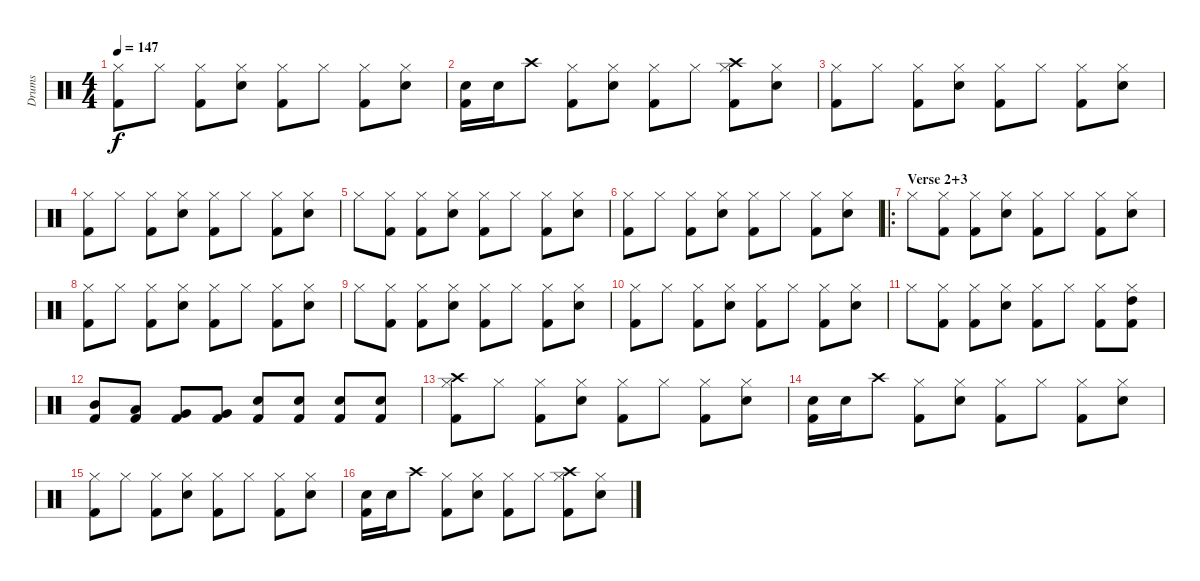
\track ("Drums" "Drums") {instrument percussion}
\staff {score}
\articulation defaults
\ts (4 4)
\tempo 147
\clef neutral
\ks c
("Kick (hit) 2" "Hi-Hat (closed)").8{dy f} "Hi-Hat (closed)".8 ("Kick (hit) 2" "Hi-Hat (closed)").8 ("Electric Snare (hit)" "Hi-Hat (closed)").8 ("Kick (hit) 2" "Hi-Hat (closed)").8 "Hi-Hat (closed)".8 ("Kick (hit) 2" "Hi-Hat (closed)").8 ("Electric Snare (hit)" "Hi-Hat (closed)").8 |
("Kick (hit) 2" "Electric Snare (hit)").16 "Electric Snare (hit)".16 "Crash high (hit)".8 ("Kick (hit) 2" "Hi-Hat (closed)").8 ("Electric Snare (hit)" "Hi-Hat (closed)").8 ("Kick (hit) 2" "Hi-Hat (closed)").8 "Hi-Hat (closed)".8 ("Kick (hit) 2" "Hi-Hat (closed)" "Crash high (hit)").8 ("Electric Snare (hit)" "Hi-Hat (closed)").8 |
("Kick (hit) 2" "Hi-Hat (closed)").8 "Hi-Hat (closed)".8 ("Kick (hit) 2" "Hi-Hat (closed)").8 ("Electric Snare (hit)" "Hi-Hat (closed)").8 ("Kick (hit) 2" "Hi-Hat (closed)").8 "Hi-Hat (closed)".8 ("Kick (hit) 2" "Hi-Hat (closed)").8 ("Electric Snare (hit)" "Hi-Hat (closed)").8 |
("Kick (hit) 2" "Hi-Hat (closed)").8 "Hi-Hat (closed)".8 ("Kick (hit) 2" "Hi-Hat (closed)").8 ("Electric Snare (hit)" "Hi-Hat (closed)").8 ("Kick (hit) 2" "Hi-Hat (closed)").8 "Hi-Hat (closed)".8 ("Kick (hit) 2" "Hi-Hat (closed)").8 ("Electric Snare (hit)" "Hi-Hat (closed)").8 |
"Hi-Hat (closed)".8 ("Kick (hit) 2" "Hi-Hat (closed)").8 ("Kick (hit) 2" "Hi-Hat (closed)").8 ("Electric Snare (hit)" "Hi-Hat (closed)").8 ("Kick (hit) 2" "Hi-Hat (closed)").8 "Hi-Hat (closed)".8 ("Kick (hit) 2" "Hi-Hat (closed)").8 ("Electric Snare (hit)" "Hi-Hat (closed)").8 |
("Kick (hit) 2" "Hi-Hat (closed)").8 "Hi-Hat (closed)".8 ("Kick (hit) 2" "Hi-Hat (closed)").8 ("Electric Snare (hit)" "Hi-Hat (closed)").8 ("Kick (hit) 2" "Hi-Hat (closed)").8 "Hi-Hat (closed)".8 ("Kick (hit) 2" "Hi-Hat (closed)").8 ("Electric Snare (hit)" "Hi-Hat (closed)").8 |
\ro
\section ("" "Verse 2+3")
"Hi-Hat (closed)".8 ("Kick (hit) 2" "Hi-Hat (closed)").8 ("Kick (hit) 2" "Hi-Hat (closed)").8 ("Electric Snare (hit)" "Hi-Hat (closed)").8 ("Kick (hit) 2" "Hi-Hat (closed)").8 "Hi-Hat (closed)".8 ("Kick (hit) 2" "Hi-Hat (closed)").8 ("Electric Snare (hit)" "Hi-Hat (closed)").8 |
("Kick (hit) 2" "Hi-Hat (closed)").8 "Hi-Hat (closed)".8 ("Kick (hit) 2" "Hi-Hat (closed)").8 ("Electric Snare (hit)" "Hi-Hat (closed)").8 ("Kick (hit) 2" "Hi-Hat (closed)").8 "Hi-Hat (closed)".8 ("Kick (hit) 2" "Hi-Hat (closed)").8 ("Electric Snare (hit)" "Hi-Hat (closed)").8 |
"Hi-Hat (closed)".8 ("Kick (hit) 2" "Hi-Hat (closed)").8 ("Kick (hit) 2" "Hi-Hat (closed)").8 ("Electric Snare (hit)" "Hi-Hat (closed)").8 ("Kick (hit) 2" "Hi-Hat (closed)").8 "Hi-Hat (closed)".8 ("Kick (hit) 2" "Hi-Hat (closed)").8 ("Electric Snare (hit)" "Hi-Hat (closed)").8 |
("Kick (hit) 2" "Hi-Hat (closed)").8 "Hi-Hat (closed)".8 ("Kick (hit) 2" "Hi-Hat (closed)").8 ("Electric Snare (hit)" "Hi-Hat (closed)").8 ("Kick (hit) 2" "Hi-Hat (closed)").8 "Hi-Hat (closed)".8 ("Kick (hit) 2" "Hi-Hat (closed)").8 ("Electric Snare (hit)" "Hi-Hat (closed)").8 |
"Hi-Hat (closed)".8 ("Kick (hit) 2" "Hi-Hat (closed)").8 ("Kick (hit) 2" "Hi-Hat (closed)").8 ("Electric Snare (hit)" "Hi-Hat (closed)").8 ("Kick (hit) 2" "Hi-Hat (closed)").8 "Hi-Hat (closed)".8 ("Kick (hit) 2" "Hi-Hat (closed)").8 ("Kick (hit) 2" "High Tom (hit)" "Hi-Hat (closed)").8 |
("Kick (hit) 2" "Mid Tom (hit)").8 ("Kick (hit) 2" "Low Tom (hit)").8 ("Kick (hit) 2" "Very Low Tom (hit)").8 ("Kick (hit) 2" "Very Low Tom (hit)").8 ("Kick (hit) 2" "Electric Snare (hit)").8 ("Kick (hit) 2" "Electric Snare (hit)").8 ("Kick (hit) 2" "Electric Snare (hit)").8 ("Kick (hit) 2" "Electric Snare (hit)").8 |
("Kick (hit) 2" "Hi-Hat (closed)" "Crash high (hit)").8 "Hi-Hat (closed)".8 ("Kick (hit) 2" "Hi-Hat (closed)").8 ("Electric Snare (hit)" "Hi-Hat (closed)").8 ("Kick (hit) 2" "Hi-Hat (closed)").8 "Hi-Hat (closed)".8 ("Kick (hit) 2" "Hi-Hat (closed)").8 ("Electric Snare (hit)" "Hi-Hat (closed)").8 |
("Kick (hit) 2" "Electric Snare (hit)").16 "Electric Snare (hit)".16 "Crash high (hit)".8 ("Kick (hit) 2" "Hi-Hat (closed)").8 ("Electric Snare (hit)" "Hi-Hat (closed)").8 ("Kick (hit) 2" "Hi-Hat (closed)").8 "Hi-Hat (closed)".8 ("Kick (hit) 2" "Hi-Hat (closed)").8 ("Electric Snare (hit)" "Hi-Hat (closed)").8 |
("Kick (hit) 2" "Hi-Hat (closed)").8 "Hi-Hat (closed)".8 ("Kick (hit) 2" "Hi-Hat (closed)").8 ("Electric Snare (hit)" "Hi-Hat (closed)").8 ("Kick (hit) 2" "Hi-Hat (closed)").8 "Hi-Hat (closed)".8 ("Kick (hit) 2" "Hi-Hat (closed)").8 ("Electric Snare (hit)" "Hi-Hat (closed)").8 |
("Kick (hit) 2" "Electric Snare (hit)").16 "Electric Snare (hit)".16 "Crash high (hit)".8 ("Kick (hit) 2" "Hi-Hat (closed)").8 ("Electric Snare (hit)" "Hi-Hat (closed)").8 ("Kick (hit) 2" "Hi-Hat (closed)").8 "Hi-Hat (closed)".8 ("Kick (hit) 2" "Hi-Hat (closed)" "Crash high (hit)").8 ("Electric Snare (hit)" "Hi-Hat (closed)").8
